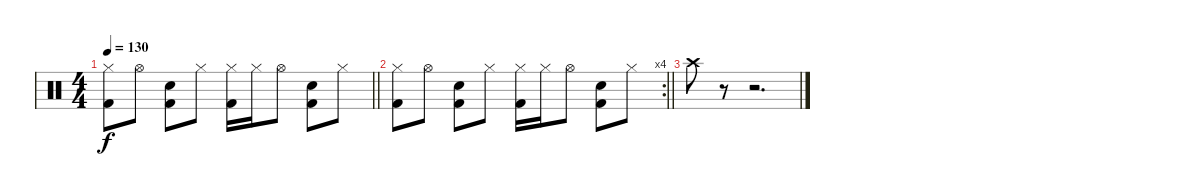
\track "" {instrument percussion}
\staff {score}
\articulation defaults
\ts (4 4)
\tempo 130
\clef neutral
\barLineRight lightlight
\ks c
("Hi-Hat (closed)" "Kick (hit) 2").8{dy f} "Hi-Hat (open)".8 ("Electric Snare (hit)" "Kick (hit) 2").8 "Hi-Hat (closed)".8 ("Hi-Hat (closed)" "Kick (hit) 2").16 "Hi-Hat (closed)".16 "Hi-Hat (open)".8 ("Electric Snare (hit)" "Kick (hit) 2").8 "Hi-Hat (closed)".8 |
\rc 4
\barLineRight lightlight
("Hi-Hat (closed)" "Kick (hit) 2").8 "Hi-Hat (open)".8 ("Electric Snare (hit)" "Kick (hit) 2").8 "Hi-Hat (closed)".8 ("Hi-Hat (closed)" "Kick (hit) 2").16 "Hi-Hat (closed)".16 "Hi-Hat (open)".8 ("Electric Snare (hit)" "Kick (hit) 2").8 "Hi-Hat (closed)".8 |
"Crash high (hit)".8 r.8 r.2{d}
